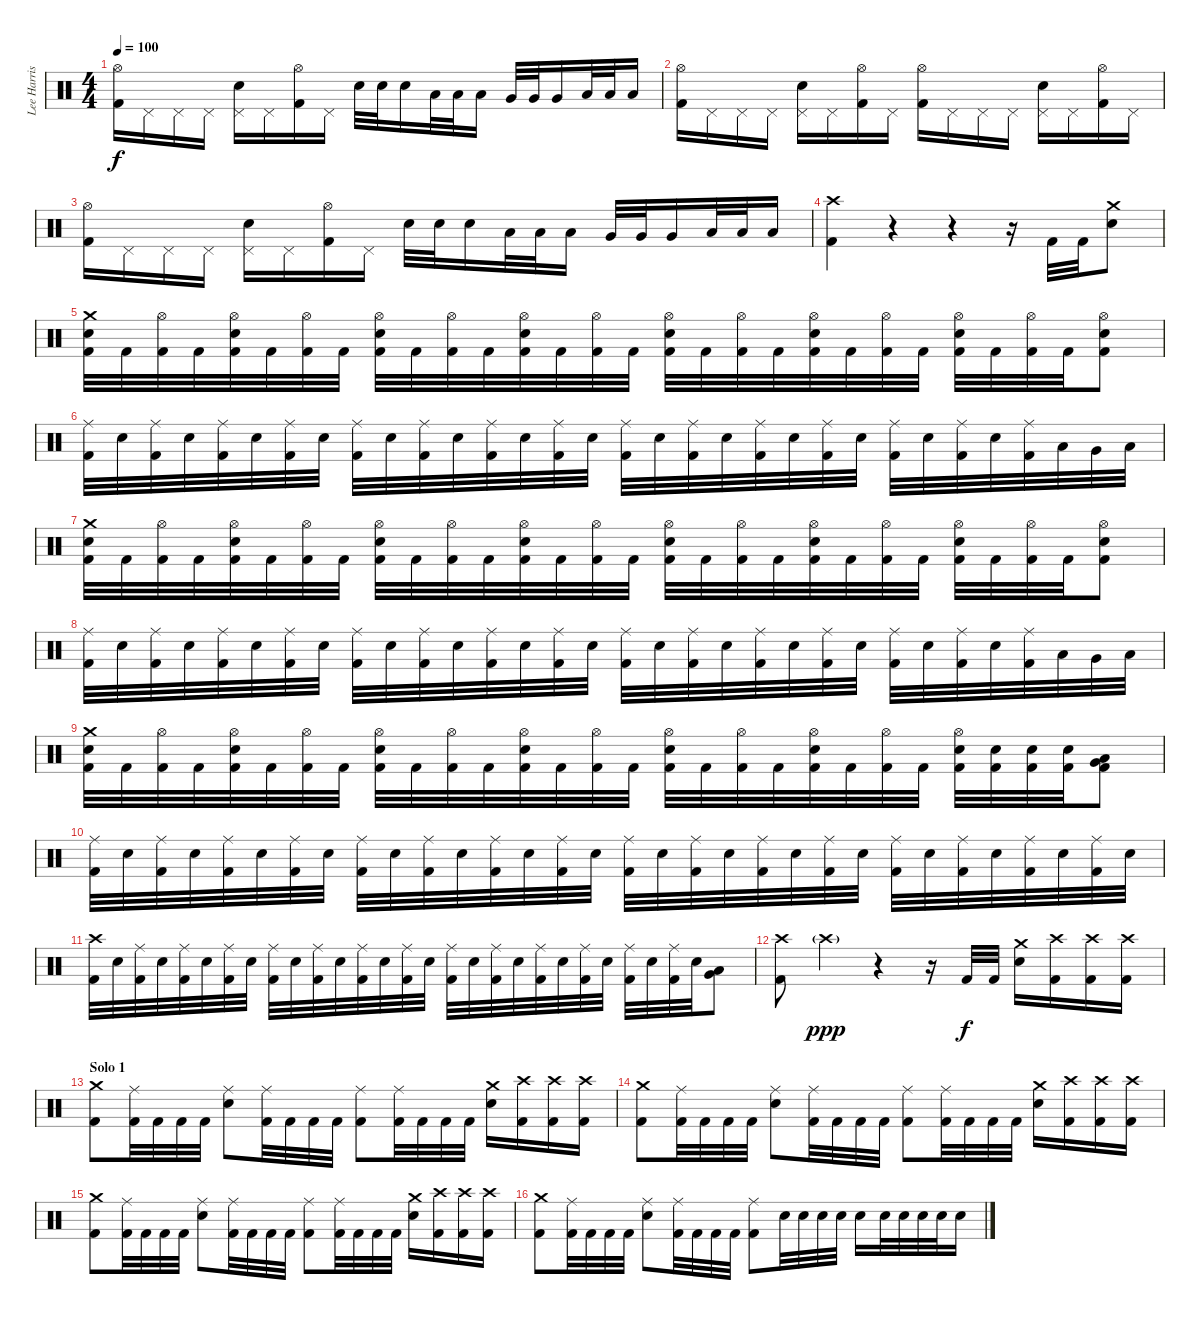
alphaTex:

\track ("Lee Harrison" "Lee Harris") {instrument percussion}
\staff {score}
\articulation defaults
\ts (4 4)
\tempo 100
\clef neutral
\ks c
("Hi-Hat (open)" "Kick (hit) 2").16{dy f} "Pedal Hi-Hat (hit)".16 "Pedal Hi-Hat (hit)".16 "Pedal Hi-Hat (hit)".16 ("Pedal Hi-Hat (hit)" "Electric Snare (hit)").16 "Pedal Hi-Hat (hit)".16 ("Hi-Hat (open)" "Kick (hit) 2").16 "Pedal Hi-Hat (hit)".16 "Electric Snare (hit)".32 "Electric Snare (hit)".32 "Electric Snare (hit)".16 "Low Tom (hit)".32 "Low Tom (hit)".32 "Low Tom (hit)".16 "Very Low Tom (hit)".32 "Very Low Tom (hit)".32 "Very Low Tom (hit)".16 "Low Floor Tom (hit)".32 "Low Floor Tom (hit)".32 "Low Floor Tom (hit)".16 |
("Hi-Hat (open)" "Kick (hit) 2").16 "Pedal Hi-Hat (hit)".16 "Pedal Hi-Hat (hit)".16 "Pedal Hi-Hat (hit)".16 ("Pedal Hi-Hat (hit)" "Electric Snare (hit)").16 "Pedal Hi-Hat (hit)".16 ("Hi-Hat (open)" "Kick (hit) 2").16 "Pedal Hi-Hat (hit)".16 ("Hi-Hat (open)" "Kick (hit) 2").16 "Pedal Hi-Hat (hit)".16 "Pedal Hi-Hat (hit)".16 "Pedal Hi-Hat (hit)".16 ("Pedal Hi-Hat (hit)" "Electric Snare (hit)").16 "Pedal Hi-Hat (hit)".16 ("Hi-Hat (open)" "Kick (hit) 2").16 "Pedal Hi-Hat (hit)".16 |
("Hi-Hat (open)" "Kick (hit) 2").16 "Pedal Hi-Hat (hit)".16 "Pedal Hi-Hat (hit)".16 "Pedal Hi-Hat (hit)".16 ("Pedal Hi-Hat (hit)" "Electric Snare (hit)").16 "Pedal Hi-Hat (hit)".16 ("Hi-Hat (open)" "Kick (hit) 2").16 "Pedal Hi-Hat (hit)".16 "Electric Snare (hit)".32 "Electric Snare (hit)".32 "Electric Snare (hit)".16 "Low Tom (hit)".32 "Low Tom (hit)".32 "Low Tom (hit)".16 "Very Low Tom (hit)".32 "Very Low Tom (hit)".32 "Very Low Tom (hit)".16 "Low Floor Tom (hit)".32 "Low Floor Tom (hit)".32 "Low Floor Tom (hit)".16 |
\section ("" "")
("Crash high (hit)" "Kick (hit) 2").4 r.4 r.4 r.16 "Kick (hit) 2".32 "Kick (hit) 2".32 ("Crash medium (hit)" "Electric Snare (hit)").8 |
("Crash medium (hit)" "Electric Snare (hit)" "Kick (hit) 2").32 "Kick (hit) 2".32 ("Hi-Hat (open)" "Kick (hit) 2").32 "Kick (hit) 2".32 ("Hi-Hat (open)" "Electric Snare (hit)" "Kick (hit) 2").32 "Kick (hit) 2".32 ("Hi-Hat (open)" "Kick (hit) 2").32 "Kick (hit) 2".32 ("Hi-Hat (open)" "Electric Snare (hit)" "Kick (hit) 2").32 "Kick (hit) 2".32 ("Hi-Hat (open)" "Kick (hit) 2").32 "Kick (hit) 2".32 ("Hi-Hat (open)" "Electric Snare (hit)" "Kick (hit) 2").32 "Kick (hit) 2".32 ("Hi-Hat (open)" "Kick (hit) 2").32 "Kick (hit) 2".32 ("Hi-Hat (open)" "Electric Snare (hit)" "Kick (hit) 2").32 "Kick (hit) 2".32 ("Hi-Hat (open)" "Kick (hit) 2").32 "Kick (hit) 2".32 ("Hi-Hat (open)" "Electric Snare (hit)" "Kick (hit) 2").32 "Kick (hit) 2".32 ("Hi-Hat (open)" "Kick (hit) 2").32 "Kick (hit) 2".32 ("Hi-Hat (open)" "Electric Snare (hit)" "Kick (hit) 2").32 "Kick (hit) 2".32 ("Hi-Hat (open)" "Kick (hit) 2").32 "Kick (hit) 2".32 ("Hi-Hat (open)" "Electric Snare (hit)" "Kick (hit) 2").8 |
("Ride (middle)" "Kick (hit) 2").32 "Electric Snare (hit)".32 ("Ride (middle)" "Kick (hit) 2").32 "Electric Snare (hit)".32 ("Ride (middle)" "Kick (hit) 2").32 "Electric Snare (hit)".32 ("Ride (middle)" "Kick (hit) 2").32 "Electric Snare (hit)".32 ("Ride (middle)" "Kick (hit) 2").32 "Electric Snare (hit)".32 ("Ride (middle)" "Kick (hit) 2").32 "Electric Snare (hit)".32 ("Ride (middle)" "Kick (hit) 2").32 "Electric Snare (hit)".32 ("Ride (middle)" "Kick (hit) 2").32 "Electric Snare (hit)".32 ("Ride (middle)" "Kick (hit) 2").32 "Electric Snare (hit)".32 ("Ride (middle)" "Kick (hit) 2").32 "Electric Snare (hit)".32 ("Ride (middle)" "Kick (hit) 2").32 "Electric Snare (hit)".32 ("Ride (middle)" "Kick (hit) 2").32 "Electric Snare (hit)".32 ("Ride (middle)" "Kick (hit) 2").32 "Electric Snare (hit)".32 ("Ride (middle)" "Kick (hit) 2").32 "Electric Snare (hit)".32 ("Ride (middle)" "Kick (hit) 2").32 "Low Tom (hit)".32 "Very Low Tom (hit)".32 "Low Floor Tom (hit)".32 |
("Crash medium (hit)" "Electric Snare (hit)" "Kick (hit) 2").32 "Kick (hit) 2".32 ("Hi-Hat (open)" "Kick (hit) 2").32 "Kick (hit) 2".32 ("Hi-Hat (open)" "Electric Snare (hit)" "Kick (hit) 2").32 "Kick (hit) 2".32 ("Hi-Hat (open)" "Kick (hit) 2").32 "Kick (hit) 2".32 ("Hi-Hat (open)" "Electric Snare (hit)" "Kick (hit) 2").32 "Kick (hit) 2".32 ("Hi-Hat (open)" "Kick (hit) 2").32 "Kick (hit) 2".32 ("Hi-Hat (open)" "Electric Snare (hit)" "Kick (hit) 2").32 "Kick (hit) 2".32 ("Hi-Hat (open)" "Kick (hit) 2").32 "Kick (hit) 2".32 ("Hi-Hat (open)" "Electric Snare (hit)" "Kick (hit) 2").32 "Kick (hit) 2".32 ("Hi-Hat (open)" "Kick (hit) 2").32 "Kick (hit) 2".32 ("Hi-Hat (open)" "Electric Snare (hit)" "Kick (hit) 2").32 "Kick (hit) 2".32 ("Hi-Hat (open)" "Kick (hit) 2").32 "Kick (hit) 2".32 ("Hi-Hat (open)" "Electric Snare (hit)" "Kick (hit) 2").32 "Kick (hit) 2".32 ("Hi-Hat (open)" "Kick (hit) 2").32 "Kick (hit) 2".32 ("Hi-Hat (open)" "Electric Snare (hit)" "Kick (hit) 2").8 |
("Ride (middle)" "Kick (hit) 2").32 "Electric Snare (hit)".32 ("Ride (middle)" "Kick (hit) 2").32 "Electric Snare (hit)".32 ("Ride (middle)" "Kick (hit) 2").32 "Electric Snare (hit)".32 ("Ride (middle)" "Kick (hit) 2").32 "Electric Snare (hit)".32 ("Ride (middle)" "Kick (hit) 2").32 "Electric Snare (hit)".32 ("Ride (middle)" "Kick (hit) 2").32 "Electric Snare (hit)".32 ("Ride (middle)" "Kick (hit) 2").32 "Electric Snare (hit)".32 ("Ride (middle)" "Kick (hit) 2").32 "Electric Snare (hit)".32 ("Ride (middle)" "Kick (hit) 2").32 "Electric Snare (hit)".32 ("Ride (middle)" "Kick (hit) 2").32 "Electric Snare (hit)".32 ("Ride (middle)" "Kick (hit) 2").32 "Electric Snare (hit)".32 ("Ride (middle)" "Kick (hit) 2").32 "Electric Snare (hit)".32 ("Ride (middle)" "Kick (hit) 2").32 "Electric Snare (hit)".32 ("Ride (middle)" "Kick (hit) 2").32 "Electric Snare (hit)".32 ("Ride (middle)" "Kick (hit) 2").32 "Low Tom (hit)".32 "Very Low Tom (hit)".32 "Low Floor Tom (hit)".32 |
("Crash medium (hit)" "Electric Snare (hit)" "Kick (hit) 2").32 "Kick (hit) 2".32 ("Hi-Hat (open)" "Kick (hit) 2").32 "Kick (hit) 2".32 ("Hi-Hat (open)" "Electric Snare (hit)" "Kick (hit) 2").32 "Kick (hit) 2".32 ("Hi-Hat (open)" "Kick (hit) 2").32 "Kick (hit) 2".32 ("Hi-Hat (open)" "Electric Snare (hit)" "Kick (hit) 2").32 "Kick (hit) 2".32 ("Hi-Hat (open)" "Kick (hit) 2").32 "Kick (hit) 2".32 ("Hi-Hat (open)" "Electric Snare (hit)" "Kick (hit) 2").32 "Kick (hit) 2".32 ("Hi-Hat (open)" "Kick (hit) 2").32 "Kick (hit) 2".32 ("Hi-Hat (open)" "Electric Snare (hit)" "Kick (hit) 2").32 "Kick (hit) 2".32 ("Hi-Hat (open)" "Kick (hit) 2").32 "Kick (hit) 2".32 ("Hi-Hat (open)" "Electric Snare (hit)" "Kick (hit) 2").32 "Kick (hit) 2".32 ("Hi-Hat (open)" "Kick (hit) 2").32 "Kick (hit) 2".32 ("Hi-Hat (open)" "Electric Snare (hit)" "Kick (hit) 2").32 ("Electric Snare (hit)" "Kick (hit) 2").32 ("Electric Snare (hit)" "Kick (hit) 2").32 ("Electric Snare (hit)" "Kick (hit) 2").32 ("Very Low Tom (hit)" "Low Floor Tom (hit)" "Kick (hit) 2").8 |
("Ride (middle)" "Kick (hit) 2").32 "Electric Snare (hit)".32 ("Ride (middle)" "Kick (hit) 2").32 "Electric Snare (hit)".32 ("Ride (middle)" "Kick (hit) 2").32 "Electric Snare (hit)".32 ("Ride (middle)" "Kick (hit) 2").32 "Electric Snare (hit)".32 ("Ride (middle)" "Kick (hit) 2").32 "Electric Snare (hit)".32 ("Ride (middle)" "Kick (hit) 2").32 "Electric Snare (hit)".32 ("Ride (middle)" "Kick (hit) 2").32 "Electric Snare (hit)".32 ("Ride (middle)" "Kick (hit) 2").32 "Electric Snare (hit)".32 ("Ride (middle)" "Kick (hit) 2").32 "Electric Snare (hit)".32 ("Ride (middle)" "Kick (hit) 2").32 "Electric Snare (hit)".32 ("Ride (middle)" "Kick (hit) 2").32 "Electric Snare (hit)".32 ("Ride (middle)" "Kick (hit) 2").32 "Electric Snare (hit)".32 ("Ride (middle)" "Kick (hit) 2").32 "Electric Snare (hit)".32 ("Ride (middle)" "Kick (hit) 2").32 "Electric Snare (hit)".32 ("Ride (middle)" "Kick (hit) 2").32 "Electric Snare (hit)".32 ("Ride (middle)" "Kick (hit) 2").32 "Electric Snare (hit)".32 |
("Crash high (hit)" "Kick (hit) 2").32 "Electric Snare (hit)".32 ("Ride (middle)" "Kick (hit) 2").32 "Electric Snare (hit)".32 ("Ride (middle)" "Kick (hit) 2").32 "Electric Snare (hit)".32 ("Ride (middle)" "Kick (hit) 2").32 "Electric Snare (hit)".32 ("Ride (middle)" "Kick (hit) 2").32 "Electric Snare (hit)".32 ("Ride (middle)" "Kick (hit) 2").32 "Electric Snare (hit)".32 ("Ride (middle)" "Kick (hit) 2").32 "Electric Snare (hit)".32 ("Ride (middle)" "Kick (hit) 2").32 "Electric Snare (hit)".32 ("Ride (middle)" "Kick (hit) 2").32 "Electric Snare (hit)".32 ("Ride (middle)" "Kick (hit) 2").32 "Electric Snare (hit)".32 ("Ride (middle)" "Kick (hit) 2").32 "Electric Snare (hit)".32 ("Ride (middle)" "Kick (hit) 2").32 "Electric Snare (hit)".32 ("Ride (middle)" "Kick (hit) 2").32 "Electric Snare (hit)".32 ("Ride (middle)" "Kick (hit) 2").32 "Electric Snare (hit)".32 ("Very Low Tom (hit)" "Low Floor Tom (hit)").8 |
\section ("" "")
("Crash high (hit)" "Kick (hit) 2").8 "Crash high (hit)"{g}.4{dy ppp} r.4{volume 0} r.16 "Kick (hit) 2".32{dy f volume 14} "Kick (hit) 2".32 ("Crash medium (hit)" "Electric Snare (hit)").16 ("Crash high (hit)" "Kick (hit) 2").16 ("Crash high (hit)" "Kick (hit) 2").16 ("Crash high (hit)" "Kick (hit) 2").16 |
\section ("" "Solo 1")
("Crash medium (hit)" "Kick (hit) 2").8 ("Ride (middle)" "Kick (hit) 2").32 "Kick (hit) 2".32 "Kick (hit) 2".32 "Kick (hit) 2".32 ("Ride (middle)" "Electric Snare (hit)").8 ("Ride (middle)" "Kick (hit) 2").32 "Kick (hit) 2".32 "Kick (hit) 2".32 "Kick (hit) 2".32 ("Ride (middle)" "Kick (hit) 2").8 ("Ride (middle)" "Kick (hit) 2").32 "Kick (hit) 2".32 "Kick (hit) 2".32 "Kick (hit) 2".32 ("Crash medium (hit)" "Electric Snare (hit)").16 ("Crash high (hit)" "Kick (hit) 2").16 ("Crash high (hit)" "Kick (hit) 2").16 ("Crash high (hit)" "Kick (hit) 2").16 |
("Crash medium (hit)" "Kick (hit) 2").8 ("Ride (middle)" "Kick (hit) 2").32 "Kick (hit) 2".32 "Kick (hit) 2".32 "Kick (hit) 2".32 ("Ride (middle)" "Electric Snare (hit)").8 ("Ride (middle)" "Kick (hit) 2").32 "Kick (hit) 2".32 "Kick (hit) 2".32 "Kick (hit) 2".32 ("Ride (middle)" "Kick (hit) 2").8 ("Ride (middle)" "Kick (hit) 2").32 "Kick (hit) 2".32 "Kick (hit) 2".32 "Kick (hit) 2".32 ("Crash medium (hit)" "Electric Snare (hit)").16 ("Crash high (hit)" "Kick (hit) 2").16 ("Crash high (hit)" "Kick (hit) 2").16 ("Crash high (hit)" "Kick (hit) 2").16 |
("Crash medium (hit)" "Kick (hit) 2").8 ("Ride (middle)" "Kick (hit) 2").32 "Kick (hit) 2".32 "Kick (hit) 2".32 "Kick (hit) 2".32 ("Ride (middle)" "Electric Snare (hit)").8 ("Ride (middle)" "Kick (hit) 2").32 "Kick (hit) 2".32 "Kick (hit) 2".32 "Kick (hit) 2".32 ("Ride (middle)" "Kick (hit) 2").8 ("Ride (middle)" "Kick (hit) 2").32 "Kick (hit) 2".32 "Kick (hit) 2".32 "Kick (hit) 2".32 ("Crash medium (hit)" "Electric Snare (hit)").16 ("Crash high (hit)" "Kick (hit) 2").16 ("Crash high (hit)" "Kick (hit) 2").16 ("Crash high (hit)" "Kick (hit) 2").16 |
("Crash medium (hit)" "Kick (hit) 2").8 ("Ride (middle)" "Kick (hit) 2").32 "Kick (hit) 2".32 "Kick (hit) 2".32 "Kick (hit) 2".32 ("Ride (middle)" "Electric Snare (hit)").8 ("Ride (middle)" "Kick (hit) 2").32 "Kick (hit) 2".32 "Kick (hit) 2".32 "Kick (hit) 2".32 ("Ride (middle)" "Kick (hit) 2").8 "Electric Snare (hit)".32 "Electric Snare (hit)".32 "Electric Snare (hit)".32 "Electric Snare (hit)".32 "Electric Snare (hit)".16 "Electric Snare (hit)".32 "Electric Snare (hit)".32 "Electric Snare (hit)".32 "Electric Snare (hit)".32 "Electric Snare (hit)".16
